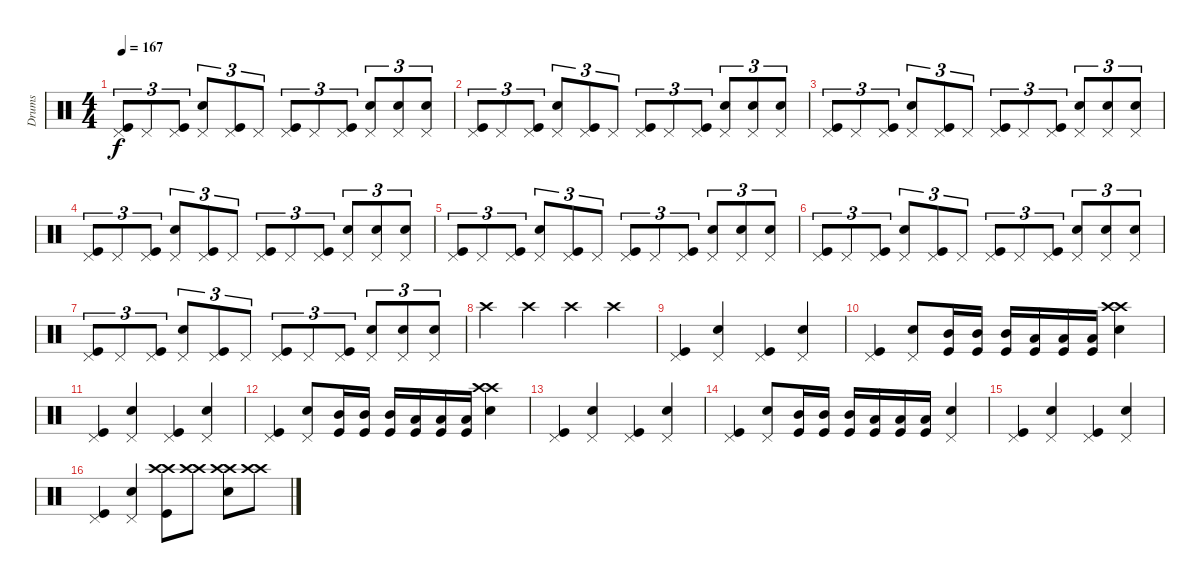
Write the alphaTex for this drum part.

\track ("Drums" "Drums") {instrument percussion}
\staff {score}
\articulation defaults
\ts (4 4)
\tempo 167
\clef neutral
\ks c
("Pedal Hi-Hat (hit)" "Kick (hit)").8{tu (3 2) dy f} "Pedal Hi-Hat (hit)".8{tu (3 2)} ("Pedal Hi-Hat (hit)" "Kick (hit)").8{tu (3 2)} ("Pedal Hi-Hat (hit)" "Snare (hit) 2").8{tu (3 2)} ("Pedal Hi-Hat (hit)" "Kick (hit)").8{tu (3 2)} "Pedal Hi-Hat (hit)".8{tu (3 2)} ("Pedal Hi-Hat (hit)" "Kick (hit)").8{tu (3 2)} "Pedal Hi-Hat (hit)".8{tu (3 2)} ("Pedal Hi-Hat (hit)" "Kick (hit)").8{tu (3 2)} ("Pedal Hi-Hat (hit)" "Snare (hit) 2").8{tu (3 2)} ("Pedal Hi-Hat (hit)" "Snare (hit) 2").8{tu (3 2)} ("Pedal Hi-Hat (hit)" "Snare (hit) 2").8{tu (3 2)} |
("Pedal Hi-Hat (hit)" "Kick (hit)").8{tu (3 2)} "Pedal Hi-Hat (hit)".8{tu (3 2)} ("Pedal Hi-Hat (hit)" "Kick (hit)").8{tu (3 2)} ("Pedal Hi-Hat (hit)" "Snare (hit) 2").8{tu (3 2)} ("Pedal Hi-Hat (hit)" "Kick (hit)").8{tu (3 2)} "Pedal Hi-Hat (hit)".8{tu (3 2)} ("Pedal Hi-Hat (hit)" "Kick (hit)").8{tu (3 2)} "Pedal Hi-Hat (hit)".8{tu (3 2)} ("Pedal Hi-Hat (hit)" "Kick (hit)").8{tu (3 2)} ("Pedal Hi-Hat (hit)" "Snare (hit) 2").8{tu (3 2)} ("Pedal Hi-Hat (hit)" "Snare (hit) 2").8{tu (3 2)} ("Pedal Hi-Hat (hit)" "Snare (hit) 2").8{tu (3 2)} |
("Pedal Hi-Hat (hit)" "Kick (hit)").8{tu (3 2)} "Pedal Hi-Hat (hit)".8{tu (3 2)} ("Pedal Hi-Hat (hit)" "Kick (hit)").8{tu (3 2)} ("Pedal Hi-Hat (hit)" "Snare (hit) 2").8{tu (3 2)} ("Pedal Hi-Hat (hit)" "Kick (hit)").8{tu (3 2)} "Pedal Hi-Hat (hit)".8{tu (3 2)} ("Pedal Hi-Hat (hit)" "Kick (hit)").8{tu (3 2)} "Pedal Hi-Hat (hit)".8{tu (3 2)} ("Pedal Hi-Hat (hit)" "Kick (hit)").8{tu (3 2)} ("Pedal Hi-Hat (hit)" "Snare (hit) 2").8{tu (3 2)} ("Pedal Hi-Hat (hit)" "Snare (hit) 2").8{tu (3 2)} ("Pedal Hi-Hat (hit)" "Snare (hit) 2").8{tu (3 2)} |
("Pedal Hi-Hat (hit)" "Kick (hit)").8{tu (3 2)} "Pedal Hi-Hat (hit)".8{tu (3 2)} ("Pedal Hi-Hat (hit)" "Kick (hit)").8{tu (3 2)} ("Pedal Hi-Hat (hit)" "Snare (hit) 2").8{tu (3 2)} ("Pedal Hi-Hat (hit)" "Kick (hit)").8{tu (3 2)} "Pedal Hi-Hat (hit)".8{tu (3 2)} ("Pedal Hi-Hat (hit)" "Kick (hit)").8{tu (3 2)} "Pedal Hi-Hat (hit)".8{tu (3 2)} ("Pedal Hi-Hat (hit)" "Kick (hit)").8{tu (3 2)} ("Pedal Hi-Hat (hit)" "Snare (hit) 2").8{tu (3 2)} ("Pedal Hi-Hat (hit)" "Snare (hit) 2").8{tu (3 2)} ("Pedal Hi-Hat (hit)" "Snare (hit) 2").8{tu (3 2)} |
("Pedal Hi-Hat (hit)" "Kick (hit)").8{tu (3 2)} "Pedal Hi-Hat (hit)".8{tu (3 2)} ("Pedal Hi-Hat (hit)" "Kick (hit)").8{tu (3 2)} ("Pedal Hi-Hat (hit)" "Snare (hit) 2").8{tu (3 2)} ("Pedal Hi-Hat (hit)" "Kick (hit)").8{tu (3 2)} "Pedal Hi-Hat (hit)".8{tu (3 2)} ("Pedal Hi-Hat (hit)" "Kick (hit)").8{tu (3 2)} "Pedal Hi-Hat (hit)".8{tu (3 2)} ("Pedal Hi-Hat (hit)" "Kick (hit)").8{tu (3 2)} ("Pedal Hi-Hat (hit)" "Snare (hit) 2").8{tu (3 2)} ("Pedal Hi-Hat (hit)" "Snare (hit) 2").8{tu (3 2)} ("Pedal Hi-Hat (hit)" "Snare (hit) 2").8{tu (3 2)} |
("Pedal Hi-Hat (hit)" "Kick (hit)").8{tu (3 2)} "Pedal Hi-Hat (hit)".8{tu (3 2)} ("Pedal Hi-Hat (hit)" "Kick (hit)").8{tu (3 2)} ("Pedal Hi-Hat (hit)" "Snare (hit) 2").8{tu (3 2)} ("Pedal Hi-Hat (hit)" "Kick (hit)").8{tu (3 2)} "Pedal Hi-Hat (hit)".8{tu (3 2)} ("Pedal Hi-Hat (hit)" "Kick (hit)").8{tu (3 2)} "Pedal Hi-Hat (hit)".8{tu (3 2)} ("Pedal Hi-Hat (hit)" "Kick (hit)").8{tu (3 2)} ("Pedal Hi-Hat (hit)" "Snare (hit) 2").8{tu (3 2)} ("Pedal Hi-Hat (hit)" "Snare (hit) 2").8{tu (3 2)} ("Pedal Hi-Hat (hit)" "Snare (hit) 2").8{tu (3 2)} |
("Pedal Hi-Hat (hit)" "Kick (hit)").8{tu (3 2)} "Pedal Hi-Hat (hit)".8{tu (3 2)} ("Pedal Hi-Hat (hit)" "Kick (hit)").8{tu (3 2)} ("Pedal Hi-Hat (hit)" "Snare (hit) 2").8{tu (3 2)} ("Pedal Hi-Hat (hit)" "Kick (hit)").8{tu (3 2)} "Pedal Hi-Hat (hit)".8{tu (3 2)} ("Pedal Hi-Hat (hit)" "Kick (hit)").8{tu (3 2)} "Pedal Hi-Hat (hit)".8{tu (3 2)} ("Pedal Hi-Hat (hit)" "Kick (hit)").8{tu (3 2)} ("Pedal Hi-Hat (hit)" "Snare (hit) 2").8{tu (3 2)} ("Pedal Hi-Hat (hit)" "Snare (hit) 2").8{tu (3 2)} ("Pedal Hi-Hat (hit)" "Snare (hit) 2").8{tu (3 2)} |
"Crash high (hit)".4 "Crash high (hit)".4 "Crash high (hit)".4 "Crash high (hit)".4 |
("Pedal Hi-Hat (hit)" "Kick (hit)").4 ("Pedal Hi-Hat (hit)" "Snare (hit) 2").4 ("Pedal Hi-Hat (hit)" "Kick (hit)").4 ("Pedal Hi-Hat (hit)" "Snare (hit) 2").4 |
("Pedal Hi-Hat (hit)" "Kick (hit)").4 ("Pedal Hi-Hat (hit)" "Snare (hit) 2").8 ("Mid Tom (hit)" "Kick (hit)").16 ("Mid Tom (hit)" "Kick (hit)").16 ("Mid Tom (hit)" "Kick (hit)").16 ("Low Tom (hit)" "Kick (hit)").16 ("Low Tom (hit)" "Kick (hit)").16 ("Low Tom (hit)" "Kick (hit)").16 ("Crash high (hit)" "Crash high (hit)" "Snare (hit) 2").4 |
("Pedal Hi-Hat (hit)" "Kick (hit)").4 ("Pedal Hi-Hat (hit)" "Snare (hit) 2").4 ("Pedal Hi-Hat (hit)" "Kick (hit)").4 ("Pedal Hi-Hat (hit)" "Snare (hit) 2").4 |
("Pedal Hi-Hat (hit)" "Kick (hit)").4 ("Pedal Hi-Hat (hit)" "Snare (hit) 2").8 ("Mid Tom (hit)" "Kick (hit)").16 ("Mid Tom (hit)" "Kick (hit)").16 ("Mid Tom (hit)" "Kick (hit)").16 ("Low Tom (hit)" "Kick (hit)").16 ("Low Tom (hit)" "Kick (hit)").16 ("Low Tom (hit)" "Kick (hit)").16 ("Crash high (hit)" "Crash high (hit)" "Snare (hit) 2").4 |
("Pedal Hi-Hat (hit)" "Kick (hit)").4 ("Pedal Hi-Hat (hit)" "Snare (hit) 2").4 ("Pedal Hi-Hat (hit)" "Kick (hit)").4 ("Pedal Hi-Hat (hit)" "Snare (hit) 2").4 |
("Pedal Hi-Hat (hit)" "Kick (hit)").4 ("Pedal Hi-Hat (hit)" "Snare (hit) 2").8 ("Mid Tom (hit)" "Kick (hit)").16 ("Mid Tom (hit)" "Kick (hit)").16 ("Mid Tom (hit)" "Kick (hit)").16 ("Low Tom (hit)" "Kick (hit)").16 ("Low Tom (hit)" "Kick (hit)").16 ("Low Tom (hit)" "Kick (hit)").16 ("Pedal Hi-Hat (hit)" "Snare (hit) 2").4 |
("Pedal Hi-Hat (hit)" "Kick (hit)").4 ("Pedal Hi-Hat (hit)" "Snare (hit) 2").4 ("Pedal Hi-Hat (hit)" "Kick (hit)").4 ("Pedal Hi-Hat (hit)" "Snare (hit) 2").4 |
("Pedal Hi-Hat (hit)" "Kick (hit)").4 ("Pedal Hi-Hat (hit)" "Snare (hit) 2").4 ("Crash high (hit)" "Crash high (hit)" "Kick (hit)").8 ("Crash high (hit)" "Crash high (hit)").8 ("Crash high (hit)" "Crash high (hit)" "Snare (hit) 2").8 ("Crash high (hit)" "Crash high (hit)").8
